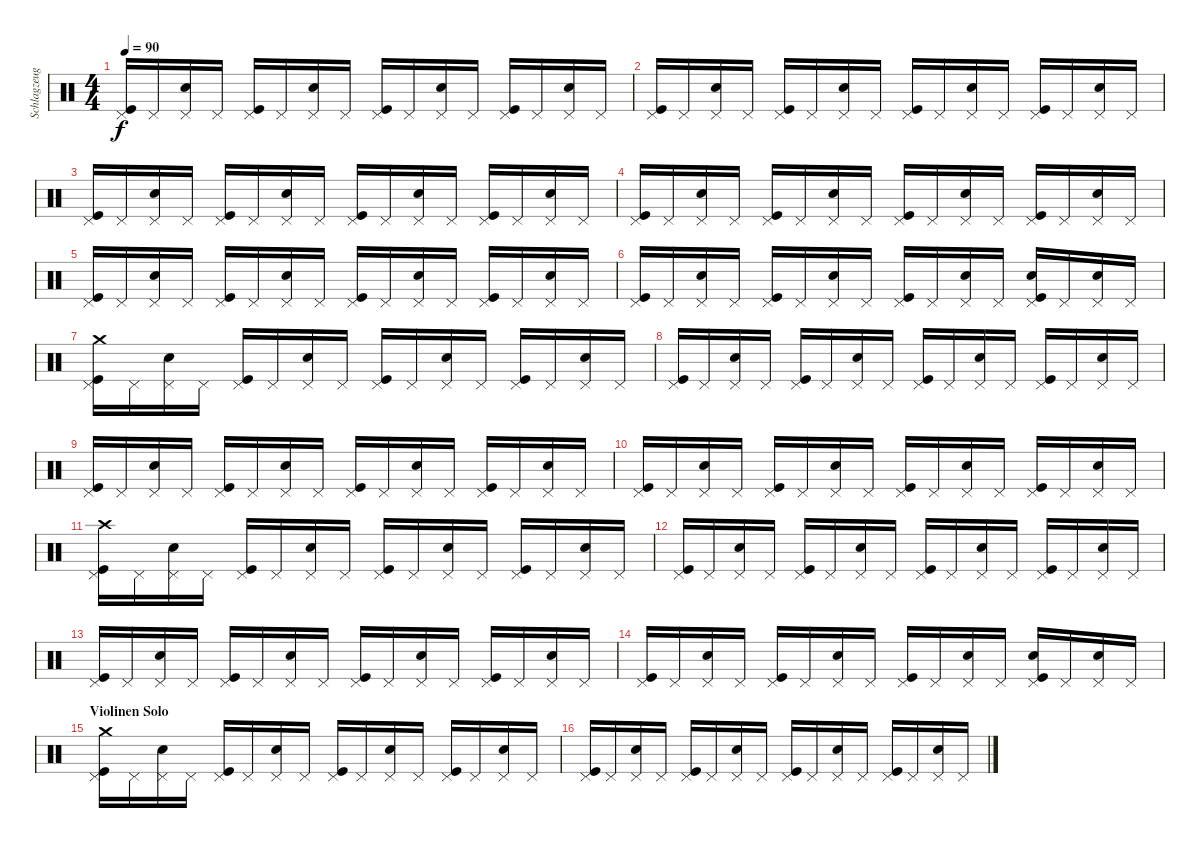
\track ("Schlagzeug" "Schlagzeug") {instrument percussion}
\staff {score}
\articulation defaults
\ts (4 4)
\tempo 90
\clef neutral
\ks c
("Pedal Hi-Hat (hit)" "Kick (hit)").16{dy f} "Pedal Hi-Hat (hit)".16 ("Pedal Hi-Hat (hit)" "Electric Snare (hit)").16 "Pedal Hi-Hat (hit)".16 ("Pedal Hi-Hat (hit)" "Kick (hit)").16 "Pedal Hi-Hat (hit)".16 ("Pedal Hi-Hat (hit)" "Electric Snare (hit)").16 "Pedal Hi-Hat (hit)".16 ("Pedal Hi-Hat (hit)" "Kick (hit)").16 "Pedal Hi-Hat (hit)".16 ("Pedal Hi-Hat (hit)" "Electric Snare (hit)").16 "Pedal Hi-Hat (hit)".16 ("Pedal Hi-Hat (hit)" "Kick (hit)").16 "Pedal Hi-Hat (hit)".16 ("Pedal Hi-Hat (hit)" "Electric Snare (hit)").16 "Pedal Hi-Hat (hit)".16 |
("Pedal Hi-Hat (hit)" "Kick (hit)").16 "Pedal Hi-Hat (hit)".16 ("Pedal Hi-Hat (hit)" "Electric Snare (hit)").16 "Pedal Hi-Hat (hit)".16 ("Pedal Hi-Hat (hit)" "Kick (hit)").16 "Pedal Hi-Hat (hit)".16 ("Pedal Hi-Hat (hit)" "Electric Snare (hit)").16 "Pedal Hi-Hat (hit)".16 ("Pedal Hi-Hat (hit)" "Kick (hit)").16 "Pedal Hi-Hat (hit)".16 ("Pedal Hi-Hat (hit)" "Electric Snare (hit)").16 "Pedal Hi-Hat (hit)".16 ("Pedal Hi-Hat (hit)" "Kick (hit)").16 "Pedal Hi-Hat (hit)".16 ("Pedal Hi-Hat (hit)" "Electric Snare (hit)").16 "Pedal Hi-Hat (hit)".16 |
("Pedal Hi-Hat (hit)" "Kick (hit)").16 "Pedal Hi-Hat (hit)".16 ("Pedal Hi-Hat (hit)" "Electric Snare (hit)").16 "Pedal Hi-Hat (hit)".16 ("Pedal Hi-Hat (hit)" "Kick (hit)").16 "Pedal Hi-Hat (hit)".16 ("Pedal Hi-Hat (hit)" "Electric Snare (hit)").16 "Pedal Hi-Hat (hit)".16 ("Pedal Hi-Hat (hit)" "Kick (hit)").16 "Pedal Hi-Hat (hit)".16 ("Pedal Hi-Hat (hit)" "Electric Snare (hit)").16 "Pedal Hi-Hat (hit)".16 ("Pedal Hi-Hat (hit)" "Kick (hit)").16 "Pedal Hi-Hat (hit)".16 ("Pedal Hi-Hat (hit)" "Electric Snare (hit)").16 "Pedal Hi-Hat (hit)".16 |
("Pedal Hi-Hat (hit)" "Kick (hit)").16 "Pedal Hi-Hat (hit)".16 ("Pedal Hi-Hat (hit)" "Electric Snare (hit)").16 "Pedal Hi-Hat (hit)".16 ("Pedal Hi-Hat (hit)" "Kick (hit)").16 "Pedal Hi-Hat (hit)".16 ("Pedal Hi-Hat (hit)" "Electric Snare (hit)").16 "Pedal Hi-Hat (hit)".16 ("Pedal Hi-Hat (hit)" "Kick (hit)").16 "Pedal Hi-Hat (hit)".16 ("Pedal Hi-Hat (hit)" "Electric Snare (hit)").16 "Pedal Hi-Hat (hit)".16 ("Pedal Hi-Hat (hit)" "Kick (hit)").16 "Pedal Hi-Hat (hit)".16 ("Pedal Hi-Hat (hit)" "Electric Snare (hit)").16 "Pedal Hi-Hat (hit)".16 |
("Pedal Hi-Hat (hit)" "Kick (hit)").16 "Pedal Hi-Hat (hit)".16 ("Pedal Hi-Hat (hit)" "Electric Snare (hit)").16 "Pedal Hi-Hat (hit)".16 ("Pedal Hi-Hat (hit)" "Kick (hit)").16 "Pedal Hi-Hat (hit)".16 ("Pedal Hi-Hat (hit)" "Electric Snare (hit)").16 "Pedal Hi-Hat (hit)".16 ("Pedal Hi-Hat (hit)" "Kick (hit)").16 "Pedal Hi-Hat (hit)".16 ("Pedal Hi-Hat (hit)" "Electric Snare (hit)").16 "Pedal Hi-Hat (hit)".16 ("Pedal Hi-Hat (hit)" "Kick (hit)").16 "Pedal Hi-Hat (hit)".16 ("Pedal Hi-Hat (hit)" "Electric Snare (hit)").16 "Pedal Hi-Hat (hit)".16 |
("Pedal Hi-Hat (hit)" "Kick (hit)").16 "Pedal Hi-Hat (hit)".16 ("Pedal Hi-Hat (hit)" "Electric Snare (hit)").16 "Pedal Hi-Hat (hit)".16 ("Pedal Hi-Hat (hit)" "Kick (hit)").16 "Pedal Hi-Hat (hit)".16 ("Pedal Hi-Hat (hit)" "Electric Snare (hit)").16 "Pedal Hi-Hat (hit)".16 ("Pedal Hi-Hat (hit)" "Kick (hit)").16 "Pedal Hi-Hat (hit)".16 ("Pedal Hi-Hat (hit)" "Electric Snare (hit)").16 "Pedal Hi-Hat (hit)".16 ("Pedal Hi-Hat (hit)" "Kick (hit)" "Electric Snare (hit)").16 "Pedal Hi-Hat (hit)".16 ("Pedal Hi-Hat (hit)" "Electric Snare (hit)").16 "Pedal Hi-Hat (hit)".16 |
("Pedal Hi-Hat (hit)" "Kick (hit)" "Crash medium (hit)").16 "Pedal Hi-Hat (hit)".16 ("Pedal Hi-Hat (hit)" "Electric Snare (hit)").16 "Pedal Hi-Hat (hit)".16 ("Pedal Hi-Hat (hit)" "Kick (hit)").16 "Pedal Hi-Hat (hit)".16 ("Pedal Hi-Hat (hit)" "Electric Snare (hit)").16 "Pedal Hi-Hat (hit)".16 ("Pedal Hi-Hat (hit)" "Kick (hit)").16 "Pedal Hi-Hat (hit)".16 ("Pedal Hi-Hat (hit)" "Electric Snare (hit)").16 "Pedal Hi-Hat (hit)".16 ("Pedal Hi-Hat (hit)" "Kick (hit)").16 "Pedal Hi-Hat (hit)".16 ("Pedal Hi-Hat (hit)" "Electric Snare (hit)").16 "Pedal Hi-Hat (hit)".16 |
("Pedal Hi-Hat (hit)" "Kick (hit)").16 "Pedal Hi-Hat (hit)".16 ("Pedal Hi-Hat (hit)" "Electric Snare (hit)").16 "Pedal Hi-Hat (hit)".16 ("Pedal Hi-Hat (hit)" "Kick (hit)").16 "Pedal Hi-Hat (hit)".16 ("Pedal Hi-Hat (hit)" "Electric Snare (hit)").16 "Pedal Hi-Hat (hit)".16 ("Pedal Hi-Hat (hit)" "Kick (hit)").16 "Pedal Hi-Hat (hit)".16 ("Pedal Hi-Hat (hit)" "Electric Snare (hit)").16 "Pedal Hi-Hat (hit)".16 ("Pedal Hi-Hat (hit)" "Kick (hit)").16 "Pedal Hi-Hat (hit)".16 ("Pedal Hi-Hat (hit)" "Electric Snare (hit)").16 "Pedal Hi-Hat (hit)".16 |
("Pedal Hi-Hat (hit)" "Kick (hit)").16 "Pedal Hi-Hat (hit)".16 ("Pedal Hi-Hat (hit)" "Electric Snare (hit)").16 "Pedal Hi-Hat (hit)".16 ("Pedal Hi-Hat (hit)" "Kick (hit)").16 "Pedal Hi-Hat (hit)".16 ("Pedal Hi-Hat (hit)" "Electric Snare (hit)").16 "Pedal Hi-Hat (hit)".16 ("Pedal Hi-Hat (hit)" "Kick (hit)").16 "Pedal Hi-Hat (hit)".16 ("Pedal Hi-Hat (hit)" "Electric Snare (hit)").16 "Pedal Hi-Hat (hit)".16 ("Pedal Hi-Hat (hit)" "Kick (hit)").16 "Pedal Hi-Hat (hit)".16 ("Pedal Hi-Hat (hit)" "Electric Snare (hit)").16 "Pedal Hi-Hat (hit)".16 |
("Pedal Hi-Hat (hit)" "Kick (hit)").16 "Pedal Hi-Hat (hit)".16 ("Pedal Hi-Hat (hit)" "Electric Snare (hit)").16 "Pedal Hi-Hat (hit)".16 ("Pedal Hi-Hat (hit)" "Kick (hit)").16 "Pedal Hi-Hat (hit)".16 ("Pedal Hi-Hat (hit)" "Electric Snare (hit)").16 "Pedal Hi-Hat (hit)".16 ("Pedal Hi-Hat (hit)" "Kick (hit)").16 "Pedal Hi-Hat (hit)".16 ("Pedal Hi-Hat (hit)" "Electric Snare (hit)").16 "Pedal Hi-Hat (hit)".16 ("Pedal Hi-Hat (hit)" "Kick (hit)").16 "Pedal Hi-Hat (hit)".16 ("Pedal Hi-Hat (hit)" "Electric Snare (hit)").16 "Pedal Hi-Hat (hit)".16 |
("Pedal Hi-Hat (hit)" "Crash high (hit)" "Kick (hit)").16 "Pedal Hi-Hat (hit)".16 ("Pedal Hi-Hat (hit)" "Electric Snare (hit)").16 "Pedal Hi-Hat (hit)".16 ("Pedal Hi-Hat (hit)" "Kick (hit)").16 "Pedal Hi-Hat (hit)".16 ("Pedal Hi-Hat (hit)" "Electric Snare (hit)").16 "Pedal Hi-Hat (hit)".16 ("Pedal Hi-Hat (hit)" "Kick (hit)").16 "Pedal Hi-Hat (hit)".16 ("Pedal Hi-Hat (hit)" "Electric Snare (hit)").16 "Pedal Hi-Hat (hit)".16 ("Pedal Hi-Hat (hit)" "Kick (hit)").16 "Pedal Hi-Hat (hit)".16 ("Pedal Hi-Hat (hit)" "Electric Snare (hit)").16 "Pedal Hi-Hat (hit)".16 |
("Pedal Hi-Hat (hit)" "Kick (hit)").16 "Pedal Hi-Hat (hit)".16 ("Pedal Hi-Hat (hit)" "Electric Snare (hit)").16 "Pedal Hi-Hat (hit)".16 ("Pedal Hi-Hat (hit)" "Kick (hit)").16 "Pedal Hi-Hat (hit)".16 ("Pedal Hi-Hat (hit)" "Electric Snare (hit)").16 "Pedal Hi-Hat (hit)".16 ("Pedal Hi-Hat (hit)" "Kick (hit)").16 "Pedal Hi-Hat (hit)".16 ("Pedal Hi-Hat (hit)" "Electric Snare (hit)").16 "Pedal Hi-Hat (hit)".16 ("Pedal Hi-Hat (hit)" "Kick (hit)").16 "Pedal Hi-Hat (hit)".16 ("Pedal Hi-Hat (hit)" "Electric Snare (hit)").16 "Pedal Hi-Hat (hit)".16 |
("Pedal Hi-Hat (hit)" "Kick (hit)").16 "Pedal Hi-Hat (hit)".16 ("Pedal Hi-Hat (hit)" "Electric Snare (hit)").16 "Pedal Hi-Hat (hit)".16 ("Pedal Hi-Hat (hit)" "Kick (hit)").16 "Pedal Hi-Hat (hit)".16 ("Pedal Hi-Hat (hit)" "Electric Snare (hit)").16 "Pedal Hi-Hat (hit)".16 ("Pedal Hi-Hat (hit)" "Kick (hit)").16 "Pedal Hi-Hat (hit)".16 ("Pedal Hi-Hat (hit)" "Electric Snare (hit)").16 "Pedal Hi-Hat (hit)".16 ("Pedal Hi-Hat (hit)" "Kick (hit)").16 "Pedal Hi-Hat (hit)".16 ("Pedal Hi-Hat (hit)" "Electric Snare (hit)").16 "Pedal Hi-Hat (hit)".16 |
("Pedal Hi-Hat (hit)" "Kick (hit)").16 "Pedal Hi-Hat (hit)".16 ("Pedal Hi-Hat (hit)" "Electric Snare (hit)").16 "Pedal Hi-Hat (hit)".16 ("Pedal Hi-Hat (hit)" "Kick (hit)").16 "Pedal Hi-Hat (hit)".16 ("Pedal Hi-Hat (hit)" "Electric Snare (hit)").16 "Pedal Hi-Hat (hit)".16 ("Pedal Hi-Hat (hit)" "Kick (hit)").16 "Pedal Hi-Hat (hit)".16 ("Pedal Hi-Hat (hit)" "Electric Snare (hit)").16 "Pedal Hi-Hat (hit)".16 ("Pedal Hi-Hat (hit)" "Kick (hit)" "Electric Snare (hit)").16 "Pedal Hi-Hat (hit)".16 ("Pedal Hi-Hat (hit)" "Electric Snare (hit)").16 "Pedal Hi-Hat (hit)".16 |
\section ("" "Violinen Solo")
("Pedal Hi-Hat (hit)" "Kick (hit)" "Crash medium (hit)").16 "Pedal Hi-Hat (hit)".16 ("Pedal Hi-Hat (hit)" "Electric Snare (hit)").16 "Pedal Hi-Hat (hit)".16 ("Pedal Hi-Hat (hit)" "Kick (hit)").16 "Pedal Hi-Hat (hit)".16 ("Pedal Hi-Hat (hit)" "Electric Snare (hit)").16 "Pedal Hi-Hat (hit)".16 ("Pedal Hi-Hat (hit)" "Kick (hit)").16 "Pedal Hi-Hat (hit)".16 ("Pedal Hi-Hat (hit)" "Electric Snare (hit)").16 "Pedal Hi-Hat (hit)".16 ("Pedal Hi-Hat (hit)" "Kick (hit)").16 "Pedal Hi-Hat (hit)".16 ("Pedal Hi-Hat (hit)" "Electric Snare (hit)").16 "Pedal Hi-Hat (hit)".16 |
("Pedal Hi-Hat (hit)" "Kick (hit)").16 "Pedal Hi-Hat (hit)".16 ("Pedal Hi-Hat (hit)" "Electric Snare (hit)").16 "Pedal Hi-Hat (hit)".16 ("Pedal Hi-Hat (hit)" "Kick (hit)").16 "Pedal Hi-Hat (hit)".16 ("Pedal Hi-Hat (hit)" "Electric Snare (hit)").16 "Pedal Hi-Hat (hit)".16 ("Pedal Hi-Hat (hit)" "Kick (hit)").16 "Pedal Hi-Hat (hit)".16 ("Pedal Hi-Hat (hit)" "Electric Snare (hit)").16 "Pedal Hi-Hat (hit)".16 ("Pedal Hi-Hat (hit)" "Kick (hit)").16 "Pedal Hi-Hat (hit)".16 ("Pedal Hi-Hat (hit)" "Electric Snare (hit)").16 "Pedal Hi-Hat (hit)".16
